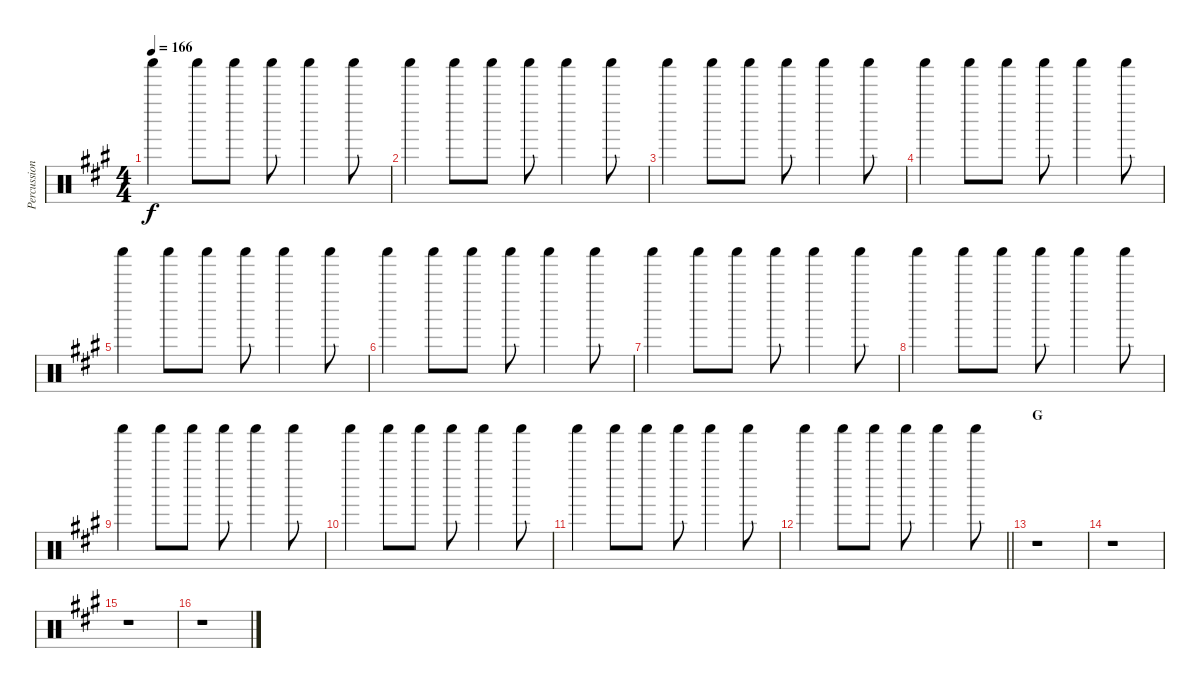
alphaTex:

\track ("Percussion III" "Percussion") {instrument percussion}
\staff {score}
\articulation defaults
\ts (4 4)
\tempo 166
\clef neutral
\ks a "Shaker (hit)".4{dy f} "Shaker (hit)".8 "Shaker (hit)".8 "Shaker (hit)".8 "Shaker (hit)".4 "Shaker (hit)".8
|
"Shaker (hit)".4 "Shaker (hit)".8 "Shaker (hit)".8 "Shaker (hit)".8 "Shaker (hit)".4 "Shaker (hit)".8 |
"Shaker (hit)".4 "Shaker (hit)".8 "Shaker (hit)".8 "Shaker (hit)".8 "Shaker (hit)".4 "Shaker (hit)".8 |
"Shaker (hit)".4 "Shaker (hit)".8 "Shaker (hit)".8 "Shaker (hit)".8 "Shaker (hit)".4 "Shaker (hit)".8 |
"Shaker (hit)".4 "Shaker (hit)".8 "Shaker (hit)".8 "Shaker (hit)".8 "Shaker (hit)".4 "Shaker (hit)".8 |
"Shaker (hit)".4 "Shaker (hit)".8 "Shaker (hit)".8 "Shaker (hit)".8 "Shaker (hit)".4 "Shaker (hit)".8 |
"Shaker (hit)".4 "Shaker (hit)".8 "Shaker (hit)".8 "Shaker (hit)".8 "Shaker (hit)".4 "Shaker (hit)".8 |
"Shaker (hit)".4 "Shaker (hit)".8 "Shaker (hit)".8 "Shaker (hit)".8 "Shaker (hit)".4 "Shaker (hit)".8 |
"Shaker (hit)".4 "Shaker (hit)".8 "Shaker (hit)".8 "Shaker (hit)".8 "Shaker (hit)".4 "Shaker (hit)".8 |
"Shaker (hit)".4 "Shaker (hit)".8 "Shaker (hit)".8 "Shaker (hit)".8 "Shaker (hit)".4 "Shaker (hit)".8 |
"Shaker (hit)".4 "Shaker (hit)".8 "Shaker (hit)".8 "Shaker (hit)".8 "Shaker (hit)".4 "Shaker (hit)".8 |
\barLineRight lightlight "Shaker (hit)".4 "Shaker (hit)".8 "Shaker (hit)".8 "Shaker (hit)".8 "Shaker (hit)".4 "Shaker (hit)".8
|
\section ("" "G")
r.1 |
r.1 |
r.1 |
r.1
